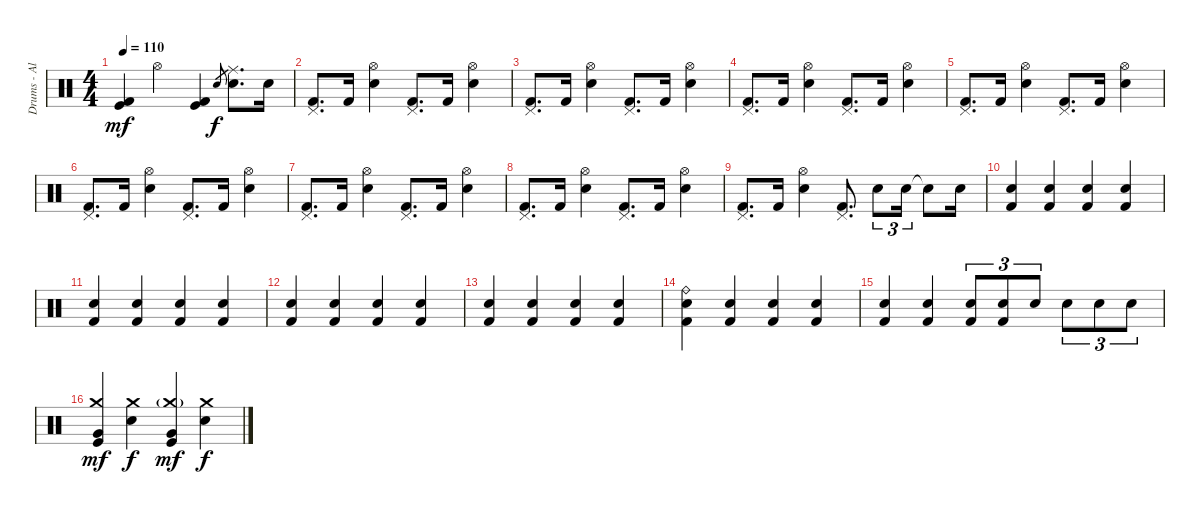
\track ("Drums - Alan White" "Drums - Al") {instrument percussion}
\staff {score}
\articulation defaults
\ts (4 4)
\tempo 110
\clef neutral
\ks c
("Kick (hit)" "Kick (hit) 2").4{dy mf} "Hi-Hat (open)".4 ("Kick (hit)" "Kick (hit) 2").4 "Snare (hit) 2".8{gr dy f} ("Ride (middle)" "Snare (hit) 2").8{d} "Snare (hit) 2".16 |
("Pedal Hi-Hat (hit)" "Kick (hit) 2").8{d} "Kick (hit) 2".16 ("Hi-Hat (open)" "Snare (hit) 2").4 ("Pedal Hi-Hat (hit)" "Kick (hit) 2").8{d} "Kick (hit) 2".16 ("Hi-Hat (open)" "Snare (hit) 2").4 |
("Pedal Hi-Hat (hit)" "Kick (hit) 2").8{d} "Kick (hit) 2".16 ("Hi-Hat (open)" "Snare (hit) 2").4 ("Pedal Hi-Hat (hit)" "Kick (hit) 2").8{d} "Kick (hit) 2".16 ("Hi-Hat (open)" "Snare (hit) 2").4 |
("Pedal Hi-Hat (hit)" "Kick (hit) 2").8{d} "Kick (hit) 2".16 ("Hi-Hat (open)" "Snare (hit) 2").4 ("Pedal Hi-Hat (hit)" "Kick (hit) 2").8{d} "Kick (hit) 2".16 ("Hi-Hat (open)" "Snare (hit) 2").4 |
("Pedal Hi-Hat (hit)" "Kick (hit) 2").8{d} "Kick (hit) 2".16 ("Hi-Hat (open)" "Snare (hit) 2").4 ("Pedal Hi-Hat (hit)" "Kick (hit) 2").8{d} "Kick (hit) 2".16 ("Hi-Hat (open)" "Snare (hit) 2").4 |
("Pedal Hi-Hat (hit)" "Kick (hit) 2").8{d} "Kick (hit) 2".16 ("Hi-Hat (open)" "Snare (hit) 2").4 ("Pedal Hi-Hat (hit)" "Kick (hit) 2").8{d} "Kick (hit) 2".16 ("Hi-Hat (open)" "Snare (hit) 2").4 |
("Pedal Hi-Hat (hit)" "Kick (hit) 2").8{d} "Kick (hit) 2".16 ("Hi-Hat (open)" "Snare (hit) 2").4 ("Pedal Hi-Hat (hit)" "Kick (hit) 2").8{d} "Kick (hit) 2".16 ("Hi-Hat (open)" "Snare (hit) 2").4 |
("Pedal Hi-Hat (hit)" "Kick (hit) 2").8{d} "Kick (hit) 2".16 ("Hi-Hat (open)" "Snare (hit) 2").4 ("Pedal Hi-Hat (hit)" "Kick (hit) 2").8{d} "Kick (hit) 2".16 ("Hi-Hat (open)" "Snare (hit) 2").4 |
("Pedal Hi-Hat (hit)" "Kick (hit) 2").8{d} "Kick (hit) 2".16 ("Hi-Hat (open)" "Snare (hit) 2").4 ("Pedal Hi-Hat (hit)" "Kick (hit) 2").8{d} "Snare (hit) 2".8{tu (3 2)} "Snare (hit) 2".16{tu (3 2)} "Snare (hit)"{t}.8 "Snare (hit) 2".16 |
("Snare (hit) 2" "Kick (hit) 2").4 ("Snare (hit) 2" "Kick (hit) 2").4 ("Snare (hit) 2" "Kick (hit) 2").4 ("Snare (hit) 2" "Kick (hit) 2").4 |
("Snare (hit) 2" "Kick (hit) 2").4 ("Snare (hit) 2" "Kick (hit) 2").4 ("Snare (hit) 2" "Kick (hit) 2").4 ("Snare (hit) 2" "Kick (hit) 2").4 |
("Snare (hit) 2" "Kick (hit) 2").4 ("Snare (hit) 2" "Kick (hit) 2").4 ("Snare (hit) 2" "Kick (hit) 2").4 ("Snare (hit) 2" "Kick (hit) 2").4 |
("Snare (hit) 2" "Kick (hit) 2").4 ("Snare (hit) 2" "Kick (hit) 2").4 ("Snare (hit) 2" "Kick (hit) 2").4 ("Snare (hit) 2" "Kick (hit) 2").4 |
("Ride (bell)" "Snare (hit) 2" "Kick (hit) 2").4 ("Snare (hit) 2" "Kick (hit) 2").4 ("Snare (hit) 2" "Kick (hit) 2").4 ("Snare (hit) 2" "Kick (hit) 2").4 |
("Snare (hit) 2" "Kick (hit) 2").4 ("Snare (hit) 2" "Kick (hit) 2").4 ("Snare (hit) 2" "Kick (hit) 2").8{tu (3 2)} ("Snare (hit) 2" "Kick (hit) 2").8{tu (3 2)} "Snare (hit) 2".8{tu (3 2)} "Snare (hit) 2".8{tu (3 2)} "Snare (hit) 2".8{tu (3 2)} "Snare (hit) 2".8{tu (3 2)} |
("Crash medium (hit)" "Kick (hit)" "Very Low Tom (hit)").4{dy mf} ("Crash medium (hit)" "Electric Snare (hit)").4{dy f} ("Crash medium (hit)"{g} "Kick (hit)" "Very Low Tom (hit)").4{dy mf} ("Crash medium (hit)" "Electric Snare (hit)").4{dy f}
